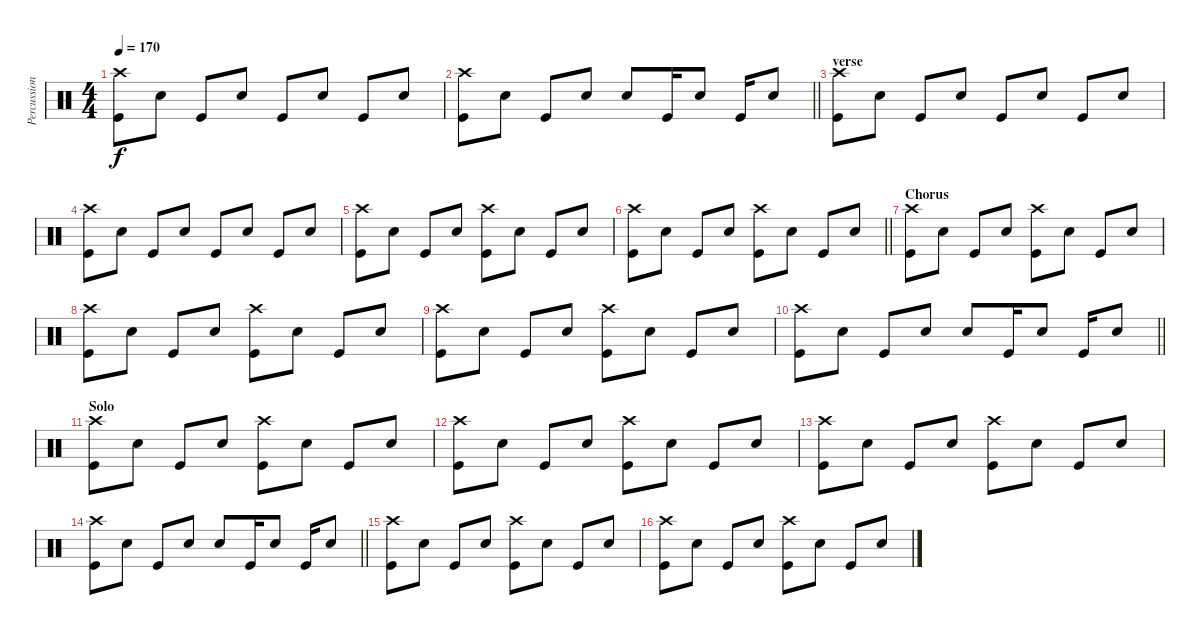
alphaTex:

\track ("Percussion" "Percussion") {instrument percussion}
\staff {score}
\articulation defaults
\ts (4 4)
\tempo 170
\clef neutral
\ks c
("Crash high (hit)" "Kick (hit)").8{dy f} "Snare (hit) 2".8 "Kick (hit)".8 "Snare (hit) 2".8 "Kick (hit)".8 "Snare (hit) 2".8 "Kick (hit)".8 "Snare (hit) 2".8 |
\barLineRight lightlight
("Crash high (hit)" "Kick (hit)").8 "Snare (hit) 2".8 "Kick (hit)".8 "Snare (hit) 2".8 "Snare (hit) 2".8 "Kick (hit)".16 "Snare (hit) 2".8 "Kick (hit)".16 "Snare (hit) 2".8 |
\section ("" "verse")
("Crash high (hit)" "Kick (hit)").8 "Snare (hit) 2".8 "Kick (hit)".8 "Snare (hit) 2".8 "Kick (hit)".8 "Snare (hit) 2".8 "Kick (hit)".8 "Snare (hit) 2".8 |
("Crash high (hit)" "Kick (hit)").8 "Snare (hit) 2".8 "Kick (hit)".8 "Snare (hit) 2".8 "Kick (hit)".8 "Snare (hit) 2".8 "Kick (hit)".8 "Snare (hit) 2".8 |
("Crash high (hit)" "Kick (hit)").8 "Snare (hit) 2".8 "Kick (hit)".8 "Snare (hit) 2".8 ("Crash high (hit)" "Kick (hit)").8 "Snare (hit) 2".8 "Kick (hit)".8 "Snare (hit) 2".8 |
\barLineRight lightlight
("Crash high (hit)" "Kick (hit)").8 "Snare (hit) 2".8 "Kick (hit)".8 "Snare (hit) 2".8 ("Crash high (hit)" "Kick (hit)").8 "Snare (hit) 2".8 "Kick (hit)".8 "Snare (hit) 2".8 |
\section ("" "Chorus")
("Crash high (hit)" "Kick (hit)").8 "Snare (hit) 2".8 "Kick (hit)".8 "Snare (hit) 2".8 ("Crash high (hit)" "Kick (hit)").8 "Snare (hit) 2".8 "Kick (hit)".8 "Snare (hit) 2".8 |
("Crash high (hit)" "Kick (hit)").8 "Snare (hit) 2".8 "Kick (hit)".8 "Snare (hit) 2".8 ("Crash high (hit)" "Kick (hit)").8 "Snare (hit) 2".8 "Kick (hit)".8 "Snare (hit) 2".8 |
("Crash high (hit)" "Kick (hit)").8 "Snare (hit) 2".8 "Kick (hit)".8 "Snare (hit) 2".8 ("Crash high (hit)" "Kick (hit)").8 "Snare (hit) 2".8 "Kick (hit)".8 "Snare (hit) 2".8 |
\barLineRight lightlight
("Crash high (hit)" "Kick (hit)").8 "Snare (hit) 2".8 "Kick (hit)".8 "Snare (hit) 2".8 "Snare (hit) 2".8 "Kick (hit)".16 "Snare (hit) 2".8 "Kick (hit)".16 "Snare (hit) 2".8 |
\section ("" "Solo")
("Crash high (hit)" "Kick (hit)").8 "Snare (hit) 2".8 "Kick (hit)".8 "Snare (hit) 2".8 ("Crash high (hit)" "Kick (hit)").8 "Snare (hit) 2".8 "Kick (hit)".8 "Snare (hit) 2".8 |
("Crash high (hit)" "Kick (hit)").8 "Snare (hit) 2".8 "Kick (hit)".8 "Snare (hit) 2".8 ("Crash high (hit)" "Kick (hit)").8 "Snare (hit) 2".8 "Kick (hit)".8 "Snare (hit) 2".8 |
("Crash high (hit)" "Kick (hit)").8 "Snare (hit) 2".8 "Kick (hit)".8 "Snare (hit) 2".8 ("Crash high (hit)" "Kick (hit)").8 "Snare (hit) 2".8 "Kick (hit)".8 "Snare (hit) 2".8 |
\barLineRight lightlight
("Crash high (hit)" "Kick (hit)").8 "Snare (hit) 2".8 "Kick (hit)".8 "Snare (hit) 2".8 "Snare (hit) 2".8 "Kick (hit)".16 "Snare (hit) 2".8 "Kick (hit)".16 "Snare (hit) 2".8 |
("Crash high (hit)" "Kick (hit)").8 "Snare (hit) 2".8 "Kick (hit)".8 "Snare (hit) 2".8 ("Crash high (hit)" "Kick (hit)").8 "Snare (hit) 2".8 "Kick (hit)".8 "Snare (hit) 2".8 |
("Crash high (hit)" "Kick (hit)").8 "Snare (hit) 2".8 "Kick (hit)".8 "Snare (hit) 2".8 ("Crash high (hit)" "Kick (hit)").8 "Snare (hit) 2".8 "Kick (hit)".8 "Snare (hit) 2".8
